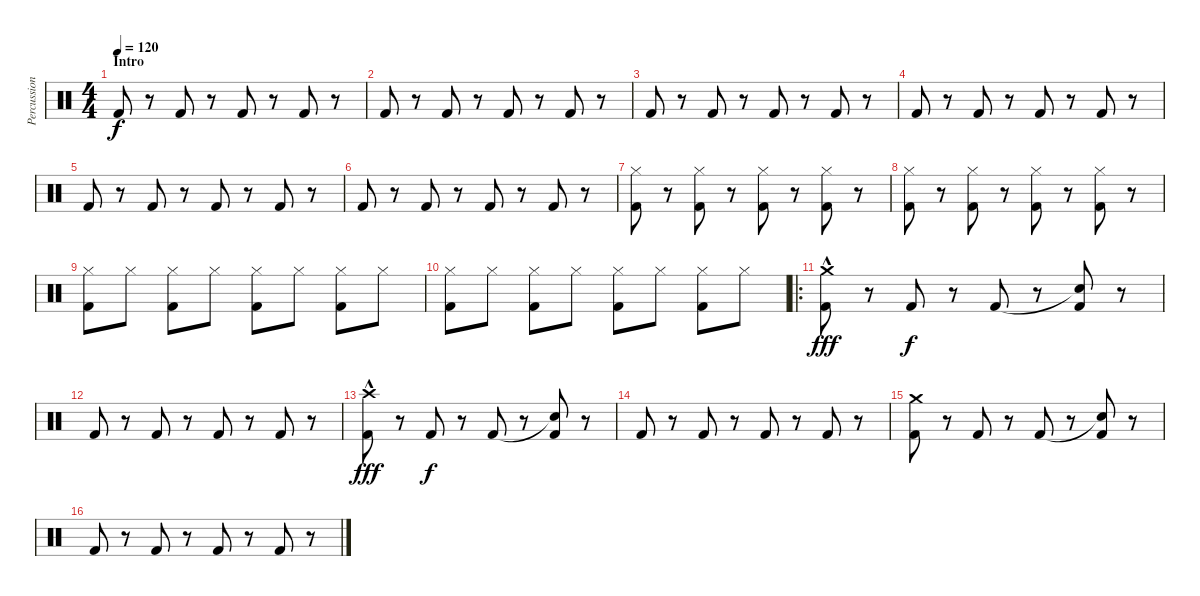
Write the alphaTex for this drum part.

\track ("Percussion" "Percussion") {instrument percussion}
\staff {score}
\articulation defaults
\ts (4 4)
\section ("" "Intro")
\tempo 120
\clef neutral
\ks c "Kick (hit) 2".8{dy f}
r.8 "Kick (hit) 2".8 r.8 "Kick (hit) 2".8 r.8 "Kick (hit) 2".8 r.8 |
"Kick (hit) 2".8 r.8 "Kick (hit) 2".8 r.8 "Kick (hit) 2".8 r.8 "Kick (hit) 2".8 r.8 |
"Kick (hit) 2".8 r.8 "Kick (hit) 2".8 r.8 "Kick (hit) 2".8 r.8 "Kick (hit) 2".8 r.8 |
"Kick (hit) 2".8 r.8 "Kick (hit) 2".8 r.8 "Kick (hit) 2".8 r.8 "Kick (hit) 2".8 r.8 |
"Kick (hit) 2".8 r.8 "Kick (hit) 2".8 r.8 "Kick (hit) 2".8 r.8 "Kick (hit) 2".8 r.8 |
"Kick (hit) 2".8 r.8 "Kick (hit) 2".8 r.8 "Kick (hit) 2".8 r.8 "Kick (hit) 2".8 r.8 |
("Hi-Hat (closed)" "Kick (hit) 2").8 r.8 ("Hi-Hat (closed)" "Kick (hit) 2").8 r.8 ("Hi-Hat (closed)" "Kick (hit) 2").8 r.8 ("Hi-Hat (closed)" "Kick (hit) 2").8 r.8 |
("Hi-Hat (closed)" "Kick (hit) 2").8 r.8 ("Hi-Hat (closed)" "Kick (hit) 2").8 r.8 ("Hi-Hat (closed)" "Kick (hit) 2").8 r.8 ("Hi-Hat (closed)" "Kick (hit) 2").8 r.8 |
("Hi-Hat (closed)" "Kick (hit) 2").8 "Hi-Hat (closed)".8 ("Hi-Hat (closed)" "Kick (hit) 2").8 "Hi-Hat (closed)".8 ("Hi-Hat (closed)" "Kick (hit) 2").8 "Hi-Hat (closed)".8 ("Hi-Hat (closed)" "Kick (hit) 2").8 "Hi-Hat (closed)".8 |
("Hi-Hat (closed)" "Kick (hit) 2").8 "Hi-Hat (closed)".8 ("Hi-Hat (closed)" "Kick (hit) 2").8 "Hi-Hat (closed)".8 ("Hi-Hat (closed)" "Kick (hit) 2").8 "Hi-Hat (closed)".8 ("Hi-Hat (closed)" "Kick (hit) 2").8 "Hi-Hat (closed)".8 |
\ro
("Crash medium (hit)"{hac} "Kick (hit) 2").8{dy fff} r.8 "Kick (hit) 2".8{dy f} r.8 "Kick (hit) 2".8 r.8 ("Snare (hit)"{t} "Kick (hit) 2").8 r.8 |
"Kick (hit) 2".8 r.8 "Kick (hit) 2".8 r.8 "Kick (hit) 2".8 r.8 "Kick (hit) 2".8 r.8 |
("Crash high (hit)"{hac} "Kick (hit) 2").8{dy fff} r.8 "Kick (hit) 2".8{dy f} r.8 "Kick (hit) 2".8 r.8 ("Snare (hit)"{t} "Kick (hit) 2").8 r.8 |
"Kick (hit) 2".8 r.8 "Kick (hit) 2".8 r.8 "Kick (hit) 2".8 r.8 "Kick (hit) 2".8 r.8 |
("Crash medium (hit)" "Kick (hit) 2").8 r.8 "Kick (hit) 2".8 r.8 "Kick (hit) 2".8 r.8 ("Snare (hit)"{t} "Kick (hit) 2").8 r.8 |
"Kick (hit) 2".8 r.8 "Kick (hit) 2".8 r.8 "Kick (hit) 2".8 r.8 "Kick (hit) 2".8 r.8
